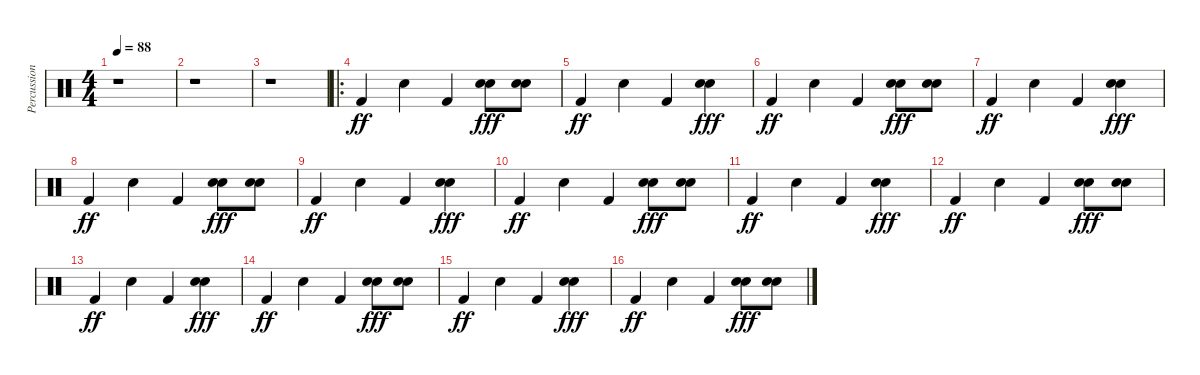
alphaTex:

\track ("Percussion" "Percussion") {instrument percussion}
\staff {score}
\articulation defaults
\ts (4 4)
\tempo 88
\clef neutral
\ks c
r.1{dy ff} |
r.1 |
r.1 |
\ro "Kick (hit) 2".4 "Electric Snare (hit)".4 "Kick (hit) 2".4
("Electric Snare (hit)" "Hand Clap (hit)").8{dy fff} ("Electric Snare (hit)" "Hand Clap (hit)").8 |
"Kick (hit) 2".4{dy ff} "Electric Snare (hit)".4 "Kick (hit) 2".4 ("Electric Snare (hit)" "Hand Clap (hit)").4{dy fff} |
"Kick (hit) 2".4{dy ff} "Electric Snare (hit)".4 "Kick (hit) 2".4 ("Electric Snare (hit)" "Hand Clap (hit)").8{dy fff} ("Electric Snare (hit)" "Hand Clap (hit)").8 |
"Kick (hit) 2".4{dy ff} "Electric Snare (hit)".4 "Kick (hit) 2".4 ("Electric Snare (hit)" "Hand Clap (hit)").4{dy fff} |
"Kick (hit) 2".4{dy ff} "Electric Snare (hit)".4 "Kick (hit) 2".4 ("Electric Snare (hit)" "Hand Clap (hit)").8{dy fff} ("Electric Snare (hit)" "Hand Clap (hit)").8 |
"Kick (hit) 2".4{dy ff} "Electric Snare (hit)".4 "Kick (hit) 2".4 ("Electric Snare (hit)" "Hand Clap (hit)").4{dy fff} |
"Kick (hit) 2".4{dy ff} "Electric Snare (hit)".4 "Kick (hit) 2".4 ("Electric Snare (hit)" "Hand Clap (hit)").8{dy fff} ("Electric Snare (hit)" "Hand Clap (hit)").8 |
"Kick (hit) 2".4{dy ff} "Electric Snare (hit)".4 "Kick (hit) 2".4 ("Electric Snare (hit)" "Hand Clap (hit)").4{dy fff} |
"Kick (hit) 2".4{dy ff} "Electric Snare (hit)".4 "Kick (hit) 2".4 ("Electric Snare (hit)" "Hand Clap (hit)").8{dy fff} ("Electric Snare (hit)" "Hand Clap (hit)").8 |
"Kick (hit) 2".4{dy ff} "Electric Snare (hit)".4 "Kick (hit) 2".4 ("Electric Snare (hit)" "Hand Clap (hit)").4{dy fff} |
"Kick (hit) 2".4{dy ff} "Electric Snare (hit)".4 "Kick (hit) 2".4 ("Electric Snare (hit)" "Hand Clap (hit)").8{dy fff} ("Electric Snare (hit)" "Hand Clap (hit)").8 |
"Kick (hit) 2".4{dy ff} "Electric Snare (hit)".4 "Kick (hit) 2".4 ("Electric Snare (hit)" "Hand Clap (hit)").4{dy fff} |
"Kick (hit) 2".4{dy ff} "Electric Snare (hit)".4 "Kick (hit) 2".4 ("Electric Snare (hit)" "Hand Clap (hit)").8{dy fff} ("Electric Snare (hit)" "Hand Clap (hit)").8
